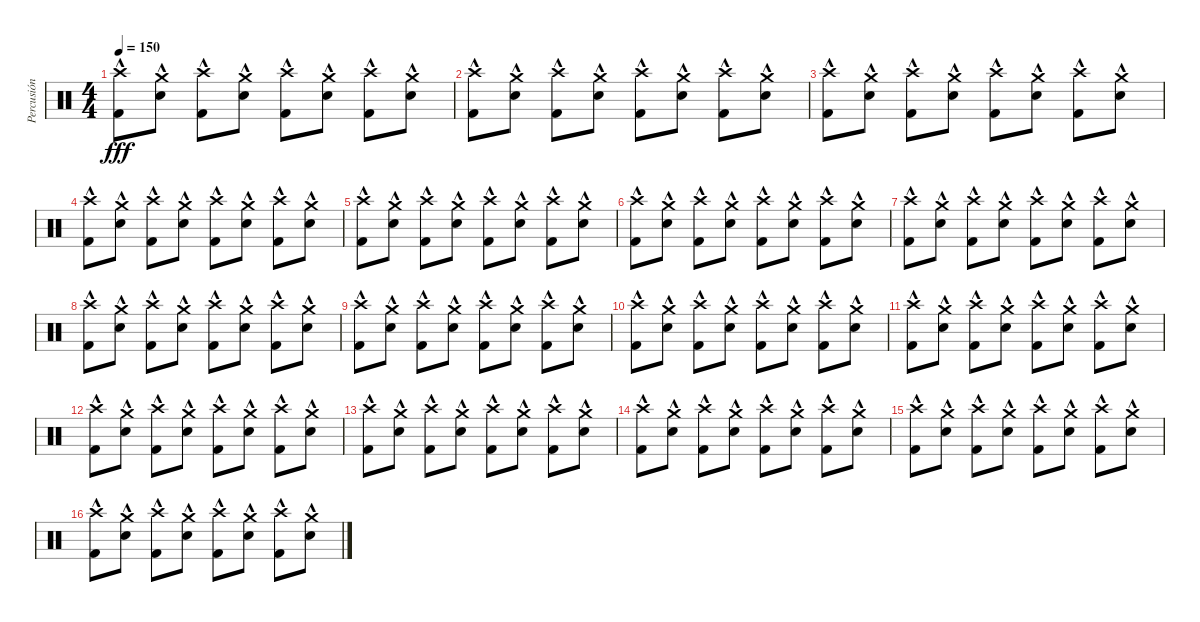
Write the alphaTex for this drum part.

\track ("Percusión" "Percusión") {instrument percussion}
\staff {score}
\articulation defaults
\ts (4 4)
\tempo 150
\clef neutral
\ks c
("Kick (hit) 2"{hac} "Crash high (hit)").8{dy fff} ("Snare (hit) 2"{hac} "Crash medium (hit)").8 ("Kick (hit) 2"{hac} "Crash high (hit)").8 ("Snare (hit) 2"{hac} "Crash medium (hit)").8 ("Kick (hit) 2"{hac} "Crash high (hit)").8 ("Snare (hit) 2"{hac} "Crash medium (hit)").8 ("Kick (hit) 2"{hac} "Crash high (hit)").8 ("Snare (hit) 2"{hac} "Crash medium (hit)").8 |
("Kick (hit) 2"{hac} "Crash high (hit)").8 ("Snare (hit) 2"{hac} "Crash medium (hit)").8 ("Kick (hit) 2"{hac} "Crash high (hit)").8 ("Snare (hit) 2"{hac} "Crash medium (hit)").8 ("Kick (hit) 2"{hac} "Crash high (hit)").8 ("Snare (hit) 2"{hac} "Crash medium (hit)").8 ("Kick (hit) 2"{hac} "Crash high (hit)").8 ("Snare (hit) 2"{hac} "Crash medium (hit)").8 |
("Kick (hit) 2"{hac} "Crash high (hit)").8 ("Snare (hit) 2"{hac} "Crash medium (hit)").8 ("Kick (hit) 2"{hac} "Crash high (hit)").8 ("Snare (hit) 2"{hac} "Crash medium (hit)").8 ("Kick (hit) 2"{hac} "Crash high (hit)").8 ("Snare (hit) 2"{hac} "Crash medium (hit)").8 ("Kick (hit) 2"{hac} "Crash high (hit)").8 ("Snare (hit) 2"{hac} "Crash medium (hit)").8 |
("Kick (hit) 2"{hac} "Crash high (hit)").8 ("Snare (hit) 2"{hac} "Crash medium (hit)").8 ("Kick (hit) 2"{hac} "Crash high (hit)").8 ("Snare (hit) 2"{hac} "Crash medium (hit)").8 ("Kick (hit) 2"{hac} "Crash high (hit)").8 ("Snare (hit) 2"{hac} "Crash medium (hit)").8 ("Kick (hit) 2"{hac} "Crash high (hit)").8 ("Snare (hit) 2"{hac} "Crash medium (hit)").8 |
("Kick (hit) 2"{hac} "Crash high (hit)").8 ("Snare (hit) 2"{hac} "Crash medium (hit)").8 ("Kick (hit) 2"{hac} "Crash high (hit)").8 ("Snare (hit) 2"{hac} "Crash medium (hit)").8 ("Kick (hit) 2"{hac} "Crash high (hit)").8 ("Snare (hit) 2"{hac} "Crash medium (hit)").8 ("Kick (hit) 2"{hac} "Crash high (hit)").8 ("Snare (hit) 2"{hac} "Crash medium (hit)").8 |
("Kick (hit) 2"{hac} "Crash high (hit)").8 ("Snare (hit) 2"{hac} "Crash medium (hit)").8 ("Kick (hit) 2"{hac} "Crash high (hit)").8 ("Snare (hit) 2"{hac} "Crash medium (hit)").8 ("Kick (hit) 2"{hac} "Crash high (hit)").8 ("Snare (hit) 2"{hac} "Crash medium (hit)").8 ("Kick (hit) 2"{hac} "Crash high (hit)").8 ("Snare (hit) 2"{hac} "Crash medium (hit)").8 |
("Kick (hit) 2"{hac} "Crash high (hit)").8 ("Snare (hit) 2"{hac} "Crash medium (hit)").8 ("Kick (hit) 2"{hac} "Crash high (hit)").8 ("Snare (hit) 2"{hac} "Crash medium (hit)").8 ("Kick (hit) 2"{hac} "Crash high (hit)").8 ("Snare (hit) 2"{hac} "Crash medium (hit)").8 ("Kick (hit) 2"{hac} "Crash high (hit)").8 ("Snare (hit) 2"{hac} "Crash medium (hit)").8 |
("Kick (hit) 2"{hac} "Crash high (hit)").8 ("Snare (hit) 2"{hac} "Crash medium (hit)").8 ("Kick (hit) 2"{hac} "Crash high (hit)").8 ("Snare (hit) 2"{hac} "Crash medium (hit)").8 ("Kick (hit) 2"{hac} "Crash high (hit)").8 ("Snare (hit) 2"{hac} "Crash medium (hit)").8 ("Kick (hit) 2"{hac} "Crash high (hit)").8 ("Snare (hit) 2"{hac} "Crash medium (hit)").8 |
("Kick (hit) 2"{hac} "Crash high (hit)").8 ("Snare (hit) 2"{hac} "Crash medium (hit)").8 ("Kick (hit) 2"{hac} "Crash high (hit)").8 ("Snare (hit) 2"{hac} "Crash medium (hit)").8 ("Kick (hit) 2"{hac} "Crash high (hit)").8 ("Snare (hit) 2"{hac} "Crash medium (hit)").8 ("Kick (hit) 2"{hac} "Crash high (hit)").8 ("Snare (hit) 2"{hac} "Crash medium (hit)").8 |
("Kick (hit) 2"{hac} "Crash high (hit)").8 ("Snare (hit) 2"{hac} "Crash medium (hit)").8 ("Kick (hit) 2"{hac} "Crash high (hit)").8 ("Snare (hit) 2"{hac} "Crash medium (hit)").8 ("Kick (hit) 2"{hac} "Crash high (hit)").8 ("Snare (hit) 2"{hac} "Crash medium (hit)").8 ("Kick (hit) 2"{hac} "Crash high (hit)").8 ("Snare (hit) 2"{hac} "Crash medium (hit)").8 |
("Kick (hit) 2"{hac} "Crash high (hit)").8 ("Snare (hit) 2"{hac} "Crash medium (hit)").8 ("Kick (hit) 2"{hac} "Crash high (hit)").8 ("Snare (hit) 2"{hac} "Crash medium (hit)").8 ("Kick (hit) 2"{hac} "Crash high (hit)").8 ("Snare (hit) 2"{hac} "Crash medium (hit)").8 ("Kick (hit) 2"{hac} "Crash high (hit)").8 ("Snare (hit) 2"{hac} "Crash medium (hit)").8 |
("Kick (hit) 2"{hac} "Crash high (hit)").8 ("Snare (hit) 2"{hac} "Crash medium (hit)").8 ("Kick (hit) 2"{hac} "Crash high (hit)").8 ("Snare (hit) 2"{hac} "Crash medium (hit)").8 ("Kick (hit) 2"{hac} "Crash high (hit)").8 ("Snare (hit) 2"{hac} "Crash medium (hit)").8 ("Kick (hit) 2"{hac} "Crash high (hit)").8 ("Snare (hit) 2"{hac} "Crash medium (hit)").8 |
("Kick (hit) 2"{hac} "Crash high (hit)").8 ("Snare (hit) 2"{hac} "Crash medium (hit)").8 ("Kick (hit) 2"{hac} "Crash high (hit)").8 ("Snare (hit) 2"{hac} "Crash medium (hit)").8 ("Kick (hit) 2"{hac} "Crash high (hit)").8 ("Snare (hit) 2"{hac} "Crash medium (hit)").8 ("Kick (hit) 2"{hac} "Crash high (hit)").8 ("Snare (hit) 2"{hac} "Crash medium (hit)").8 |
("Kick (hit) 2"{hac} "Crash high (hit)").8 ("Snare (hit) 2"{hac} "Crash medium (hit)").8 ("Kick (hit) 2"{hac} "Crash high (hit)").8 ("Snare (hit) 2"{hac} "Crash medium (hit)").8 ("Kick (hit) 2"{hac} "Crash high (hit)").8 ("Snare (hit) 2"{hac} "Crash medium (hit)").8 ("Kick (hit) 2"{hac} "Crash high (hit)").8 ("Snare (hit) 2"{hac} "Crash medium (hit)").8 |
("Kick (hit) 2"{hac} "Crash high (hit)").8 ("Snare (hit) 2"{hac} "Crash medium (hit)").8 ("Kick (hit) 2"{hac} "Crash high (hit)").8 ("Snare (hit) 2"{hac} "Crash medium (hit)").8 ("Kick (hit) 2"{hac} "Crash high (hit)").8 ("Snare (hit) 2"{hac} "Crash medium (hit)").8 ("Kick (hit) 2"{hac} "Crash high (hit)").8 ("Snare (hit) 2"{hac} "Crash medium (hit)").8 |
("Kick (hit) 2"{hac} "Crash high (hit)").8 ("Snare (hit) 2"{hac} "Crash medium (hit)").8 ("Kick (hit) 2"{hac} "Crash high (hit)").8 ("Snare (hit) 2"{hac} "Crash medium (hit)").8 ("Kick (hit) 2"{hac} "Crash high (hit)").8 ("Snare (hit) 2"{hac} "Crash medium (hit)").8 ("Kick (hit) 2"{hac} "Crash high (hit)").8 ("Snare (hit) 2"{hac} "Crash medium (hit)").8
